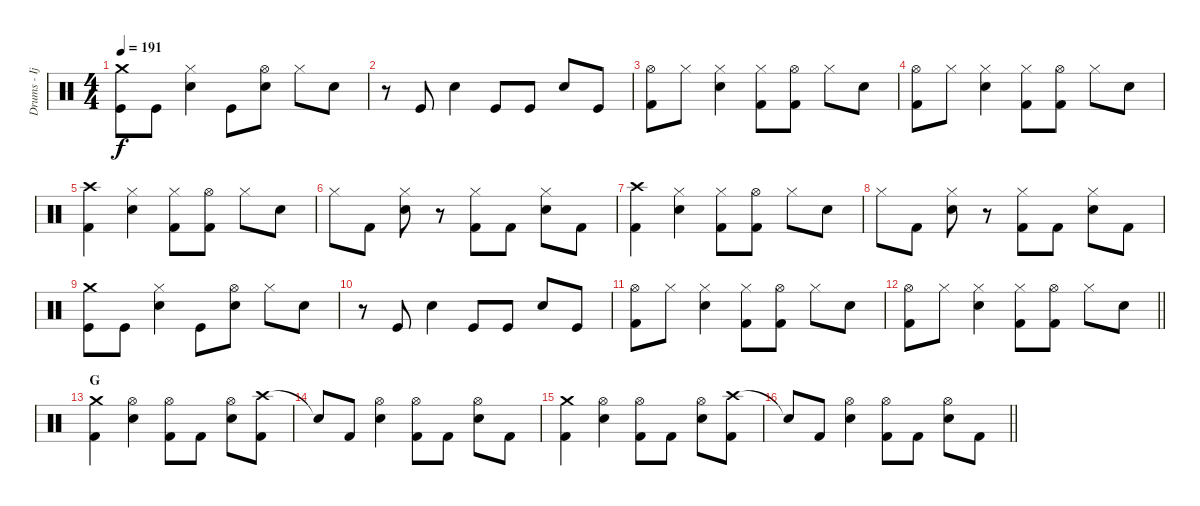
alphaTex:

\track ("Drums - Ijichi" "Drums - Ij") {instrument percussion}
\staff
\articulation defaults
\ts (4 4)
\tempo 191
\clef neutral
\ks c
("Crash medium (hit)" "Kick (hit)").8{dy f} "Kick (hit)".8 ("Hi-Hat (closed)" "Electric Snare (hit)").4 "Kick (hit)".8 ("Hi-Hat (open)" "Electric Snare (hit)").8 "Hi-Hat (closed)".8 "Electric Snare (hit)".8 |
r.8 "Kick (hit)".8 "Electric Snare (hit)".4 "Kick (hit)".8 "Kick (hit)".8 "Electric Snare (hit)".8 "Kick (hit)".8 |
("Hi-Hat (open)" "Kick (hit) 2").8 "Hi-Hat (closed)".8 ("Hi-Hat (closed)" "Electric Snare (hit)").4 ("Hi-Hat (closed)" "Kick (hit) 2").8 ("Hi-Hat (open)" "Kick (hit) 2").8 "Hi-Hat (closed)".8 "Electric Snare (hit)".8 |
("Hi-Hat (open)" "Kick (hit) 2").8 "Hi-Hat (closed)".8 ("Hi-Hat (closed)" "Electric Snare (hit)").4 ("Hi-Hat (closed)" "Kick (hit) 2").8 ("Hi-Hat (open)" "Kick (hit) 2").8 "Hi-Hat (closed)".8 "Electric Snare (hit)".8 |
("Crash high (hit)" "Kick (hit) 2").4 ("Hi-Hat (closed)" "Electric Snare (hit)").4 ("Hi-Hat (closed)" "Kick (hit) 2").8 ("Hi-Hat (open)" "Kick (hit) 2").8 "Hi-Hat (closed)".8 "Electric Snare (hit)".8 |
"Hi-Hat (closed)".8 "Kick (hit) 2".8 ("Hi-Hat (closed)" "Electric Snare (hit)").8 r.8 ("Hi-Hat (closed)" "Kick (hit) 2").8 "Kick (hit) 2".8 ("Hi-Hat (closed)" "Electric Snare (hit)").8 "Kick (hit) 2".8 |
("Crash high (hit)" "Kick (hit) 2").4 ("Hi-Hat (closed)" "Electric Snare (hit)").4 ("Hi-Hat (closed)" "Kick (hit) 2").8 ("Hi-Hat (open)" "Kick (hit) 2").8 "Hi-Hat (closed)".8 "Electric Snare (hit)".8 |
"Hi-Hat (closed)".8 "Kick (hit) 2".8 ("Hi-Hat (closed)" "Electric Snare (hit)").8 r.8 ("Hi-Hat (closed)" "Kick (hit) 2").8 "Kick (hit) 2".8 ("Hi-Hat (closed)" "Electric Snare (hit)").8 "Kick (hit) 2".8 |
("Crash medium (hit)" "Kick (hit)").8 "Kick (hit)".8 ("Hi-Hat (closed)" "Electric Snare (hit)").4 "Kick (hit)".8 ("Hi-Hat (open)" "Electric Snare (hit)").8 "Hi-Hat (closed)".8 "Electric Snare (hit)".8 |
r.8 "Kick (hit)".8 "Electric Snare (hit)".4 "Kick (hit)".8 "Kick (hit)".8 "Electric Snare (hit)".8 "Kick (hit)".8 |
("Hi-Hat (open)" "Kick (hit) 2").8 "Hi-Hat (closed)".8 ("Hi-Hat (closed)" "Electric Snare (hit)").4 ("Hi-Hat (closed)" "Kick (hit) 2").8 ("Hi-Hat (open)" "Kick (hit) 2").8 "Hi-Hat (closed)".8 "Electric Snare (hit)".8 |
\barLineRight lightlight
("Hi-Hat (open)" "Kick (hit) 2").8 "Hi-Hat (closed)".8 ("Hi-Hat (closed)" "Electric Snare (hit)").4 ("Hi-Hat (closed)" "Kick (hit) 2").8 ("Hi-Hat (open)" "Kick (hit) 2").8 "Hi-Hat (closed)".8 "Electric Snare (hit)".8 |
\section ("" "G")
("Crash medium (hit)" "Kick (hit) 2").4 ("Hi-Hat (open)" "Electric Snare (hit)").4 ("Hi-Hat (open)" "Kick (hit) 2").8 "Kick (hit) 2".8 ("Hi-Hat (open)" "Electric Snare (hit)").8 ("Crash high (hit)" "Kick (hit) 2").8 |
"Snare (hit)"{t}.8 "Kick (hit) 2".8 ("Hi-Hat (open)" "Electric Snare (hit)").4 ("Hi-Hat (open)" "Kick (hit) 2").8 "Kick (hit) 2".8 ("Hi-Hat (open)" "Electric Snare (hit)").8 "Kick (hit) 2".8 |
("Crash medium (hit)" "Kick (hit) 2").4 ("Hi-Hat (open)" "Electric Snare (hit)").4 ("Hi-Hat (open)" "Kick (hit) 2").8 "Kick (hit) 2".8 ("Hi-Hat (open)" "Electric Snare (hit)").8 ("Crash high (hit)" "Kick (hit) 2").8 |
\barLineRight lightlight "Snare (hit)"{t}.8 "Kick (hit) 2".8
("Hi-Hat (open)" "Electric Snare (hit)").4 ("Hi-Hat (open)" "Kick (hit) 2").8 "Kick (hit) 2".8 ("Hi-Hat (open)" "Electric Snare (hit)").8 "Kick (hit) 2".8
